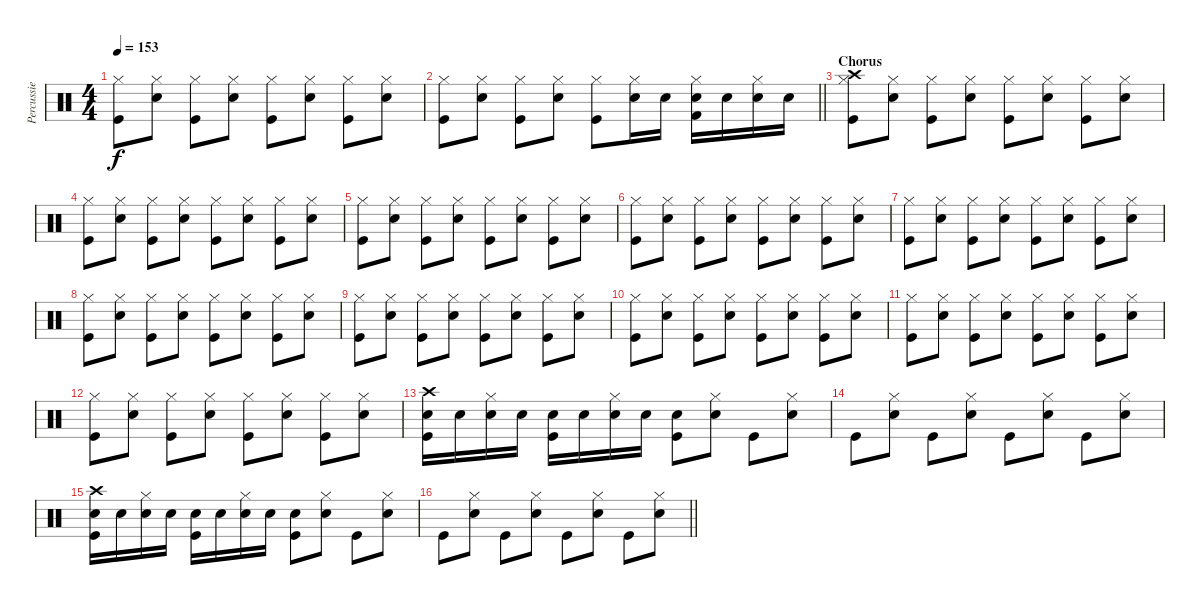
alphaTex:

\track ("Percussie George Schwindt" "Percussie ") {instrument percussion}
\staff {score}
\articulation defaults
\ts (4 4)
\tempo 153
\clef neutral
\ks c
("Hi-Hat (closed)" "Kick (hit)").8{dy f} ("Electric Snare (hit)" "Hi-Hat (closed)").8 ("Hi-Hat (closed)" "Kick (hit)").8 ("Electric Snare (hit)" "Hi-Hat (closed)").8 ("Hi-Hat (closed)" "Kick (hit)").8 ("Electric Snare (hit)" "Hi-Hat (closed)").8 ("Hi-Hat (closed)" "Kick (hit)").8 ("Electric Snare (hit)" "Hi-Hat (closed)").8 |
\barLineRight lightlight
("Hi-Hat (closed)" "Kick (hit)").8 ("Electric Snare (hit)" "Hi-Hat (closed)").8 ("Hi-Hat (closed)" "Kick (hit)").8 ("Electric Snare (hit)" "Hi-Hat (closed)").8 ("Hi-Hat (closed)" "Kick (hit)").8 ("Electric Snare (hit)" "Hi-Hat (closed)").16 "Electric Snare (hit)".16 ("Electric Snare (hit)" "Hi-Hat (closed)" "Kick (hit) 2").16 "Electric Snare (hit)".16 ("Electric Snare (hit)" "Hi-Hat (closed)").16 "Electric Snare (hit)".16 |
\section ("" "Chorus")
("Crash high (hit)" "Hi-Hat (closed)" "Kick (hit)").8 ("Electric Snare (hit)" "Hi-Hat (closed)").8 ("Hi-Hat (closed)" "Kick (hit)").8 ("Electric Snare (hit)" "Hi-Hat (closed)").8 ("Hi-Hat (closed)" "Kick (hit)").8 ("Electric Snare (hit)" "Hi-Hat (closed)").8 ("Hi-Hat (closed)" "Kick (hit)").8 ("Electric Snare (hit)" "Hi-Hat (closed)").8 |
("Hi-Hat (closed)" "Kick (hit)").8 ("Electric Snare (hit)" "Hi-Hat (closed)").8 ("Hi-Hat (closed)" "Kick (hit)").8 ("Electric Snare (hit)" "Hi-Hat (closed)").8 ("Hi-Hat (closed)" "Kick (hit)").8 ("Electric Snare (hit)" "Hi-Hat (closed)").8 ("Hi-Hat (closed)" "Kick (hit)").8 ("Electric Snare (hit)" "Hi-Hat (closed)").8 |
("Hi-Hat (closed)" "Kick (hit)").8 ("Electric Snare (hit)" "Hi-Hat (closed)").8 ("Hi-Hat (closed)" "Kick (hit)").8 ("Electric Snare (hit)" "Hi-Hat (closed)").8 ("Hi-Hat (closed)" "Kick (hit)").8 ("Electric Snare (hit)" "Hi-Hat (closed)").8 ("Hi-Hat (closed)" "Kick (hit)").8 ("Electric Snare (hit)" "Hi-Hat (closed)").8 |
("Hi-Hat (closed)" "Kick (hit)").8 ("Electric Snare (hit)" "Hi-Hat (closed)").8 ("Hi-Hat (closed)" "Kick (hit)").8 ("Electric Snare (hit)" "Hi-Hat (closed)").8 ("Hi-Hat (closed)" "Kick (hit)").8 ("Electric Snare (hit)" "Hi-Hat (closed)").8 ("Hi-Hat (closed)" "Kick (hit)").8 ("Electric Snare (hit)" "Hi-Hat (closed)").8 |
("Hi-Hat (closed)" "Kick (hit)").8 ("Electric Snare (hit)" "Hi-Hat (closed)").8 ("Hi-Hat (closed)" "Kick (hit)").8 ("Electric Snare (hit)" "Hi-Hat (closed)").8 ("Hi-Hat (closed)" "Kick (hit)").8 ("Electric Snare (hit)" "Hi-Hat (closed)").8 ("Hi-Hat (closed)" "Kick (hit)").8 ("Electric Snare (hit)" "Hi-Hat (closed)").8 |
("Hi-Hat (closed)" "Kick (hit)").8 ("Electric Snare (hit)" "Hi-Hat (closed)").8 ("Hi-Hat (closed)" "Kick (hit)").8 ("Electric Snare (hit)" "Hi-Hat (closed)").8 ("Hi-Hat (closed)" "Kick (hit)").8 ("Electric Snare (hit)" "Hi-Hat (closed)").8 ("Hi-Hat (closed)" "Kick (hit)").8 ("Electric Snare (hit)" "Hi-Hat (closed)").8 |
("Hi-Hat (closed)" "Kick (hit)").8 ("Electric Snare (hit)" "Hi-Hat (closed)").8 ("Hi-Hat (closed)" "Kick (hit)").8 ("Electric Snare (hit)" "Hi-Hat (closed)").8 ("Hi-Hat (closed)" "Kick (hit)").8 ("Electric Snare (hit)" "Hi-Hat (closed)").8 ("Hi-Hat (closed)" "Kick (hit)").8 ("Electric Snare (hit)" "Hi-Hat (closed)").8 |
("Hi-Hat (closed)" "Kick (hit)").8 ("Electric Snare (hit)" "Hi-Hat (closed)").8 ("Hi-Hat (closed)" "Kick (hit)").8 ("Electric Snare (hit)" "Hi-Hat (closed)").8 ("Hi-Hat (closed)" "Kick (hit)").8 ("Electric Snare (hit)" "Hi-Hat (closed)").8 ("Hi-Hat (closed)" "Kick (hit)").8 ("Electric Snare (hit)" "Hi-Hat (closed)").8 |
("Hi-Hat (closed)" "Kick (hit)").8 ("Electric Snare (hit)" "Hi-Hat (closed)").8 ("Hi-Hat (closed)" "Kick (hit)").8 ("Electric Snare (hit)" "Hi-Hat (closed)").8 ("Hi-Hat (closed)" "Kick (hit)").8 ("Electric Snare (hit)" "Hi-Hat (closed)").8 ("Hi-Hat (closed)" "Kick (hit)").8 ("Electric Snare (hit)" "Hi-Hat (closed)").8 |
("Hi-Hat (closed)" "Kick (hit)").8 ("Electric Snare (hit)" "Hi-Hat (closed)").8 ("Hi-Hat (closed)" "Kick (hit)").8 ("Electric Snare (hit)" "Hi-Hat (closed)").8 ("Hi-Hat (closed)" "Kick (hit)").8 ("Electric Snare (hit)" "Hi-Hat (closed)").8 ("Hi-Hat (closed)" "Kick (hit)").8 ("Electric Snare (hit)" "Hi-Hat (closed)").8 |
("Crash high (hit)" "Electric Snare (hit)" "Kick (hit)").16 "Electric Snare (hit)".16 ("Electric Snare (hit)" "Hi-Hat (closed)").16 "Electric Snare (hit)".16 ("Electric Snare (hit)" "Kick (hit)").16 "Electric Snare (hit)".16 ("Electric Snare (hit)" "Hi-Hat (closed)").16 "Electric Snare (hit)".16 ("Electric Snare (hit)" "Kick (hit)").8 ("Electric Snare (hit)" "Hi-Hat (closed)").8 "Kick (hit)".8 ("Electric Snare (hit)" "Hi-Hat (closed)").8 |
"Kick (hit)".8 ("Electric Snare (hit)" "Hi-Hat (closed)").8 "Kick (hit)".8 ("Electric Snare (hit)" "Hi-Hat (closed)").8 "Kick (hit)".8 ("Electric Snare (hit)" "Hi-Hat (closed)").8 "Kick (hit)".8 ("Electric Snare (hit)" "Hi-Hat (closed)").8 |
("Crash high (hit)" "Electric Snare (hit)" "Kick (hit)").16 "Electric Snare (hit)".16 ("Electric Snare (hit)" "Hi-Hat (closed)").16 "Electric Snare (hit)".16 ("Electric Snare (hit)" "Kick (hit)").16 "Electric Snare (hit)".16 ("Electric Snare (hit)" "Hi-Hat (closed)").16 "Electric Snare (hit)".16 ("Electric Snare (hit)" "Kick (hit)").8 ("Electric Snare (hit)" "Hi-Hat (closed)").8 "Kick (hit)".8 ("Electric Snare (hit)" "Hi-Hat (closed)").8 |
\barLineRight lightlight "Kick (hit)".8
("Electric Snare (hit)" "Hi-Hat (closed)").8 "Kick (hit)".8 ("Electric Snare (hit)" "Hi-Hat (closed)").8 "Kick (hit)".8 ("Electric Snare (hit)" "Hi-Hat (closed)").8 "Kick (hit)".8 ("Electric Snare (hit)" "Hi-Hat (closed)").8
